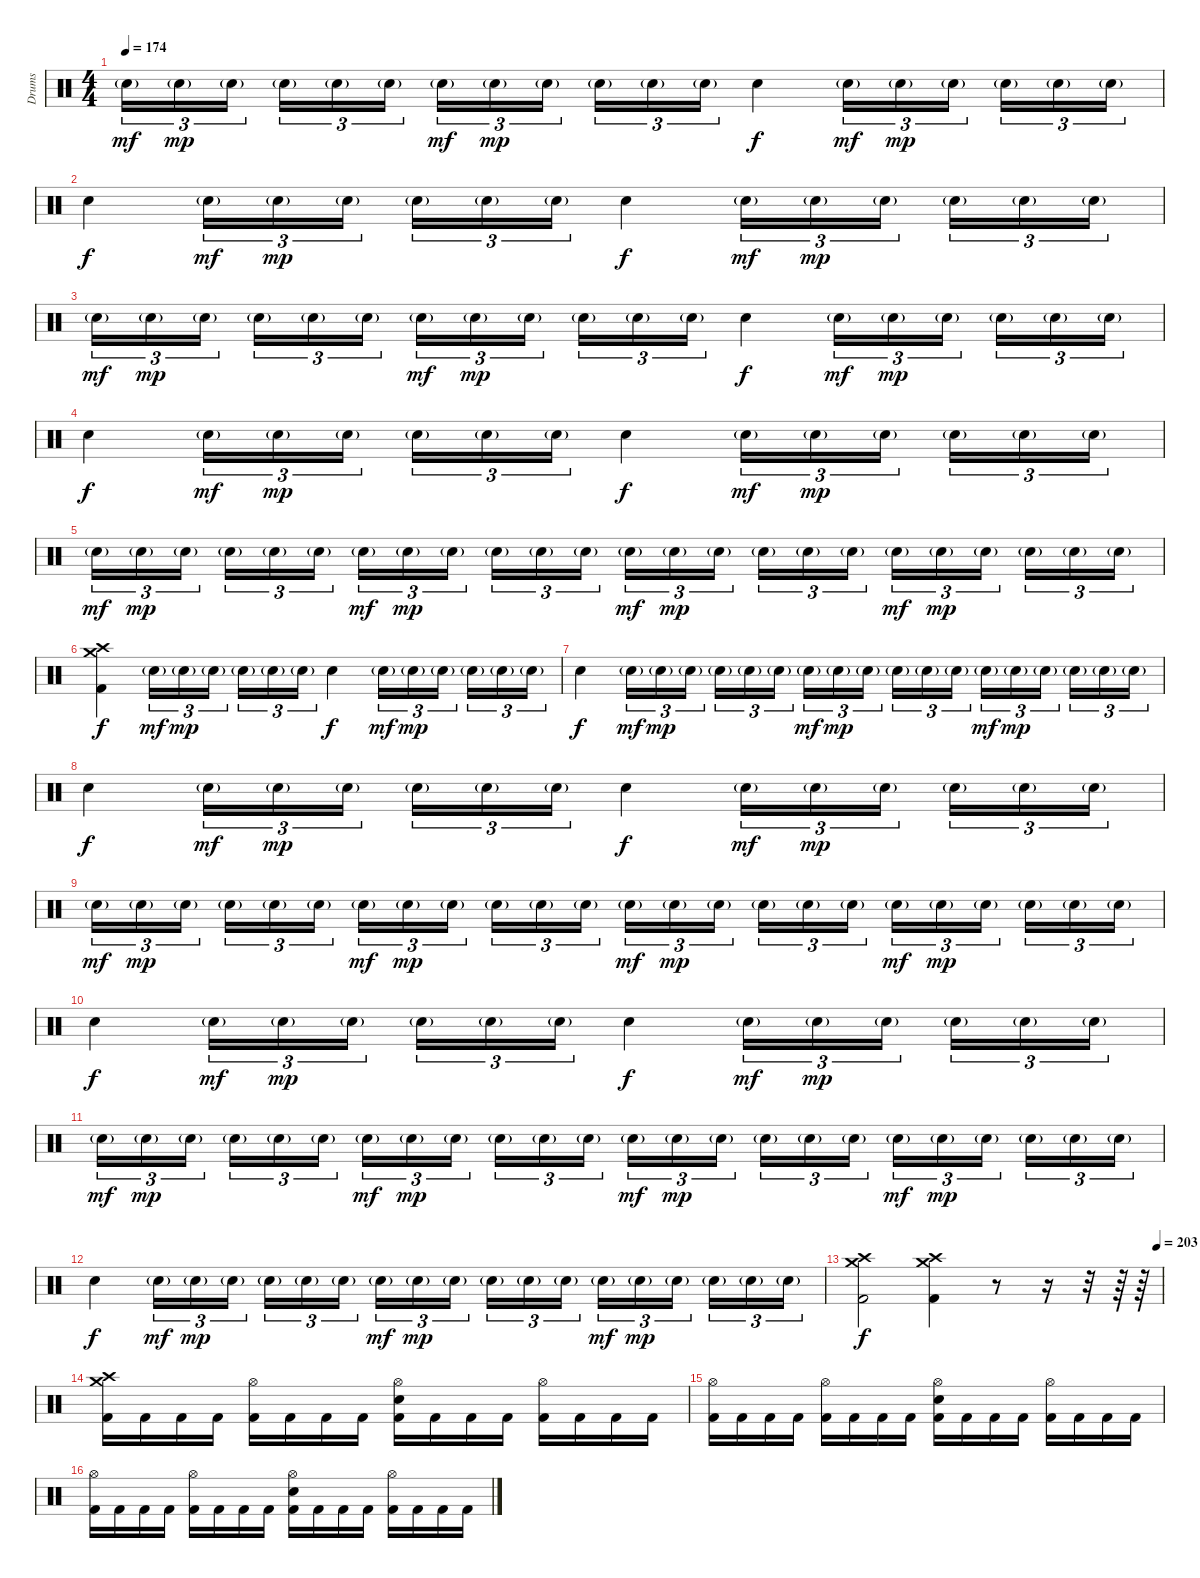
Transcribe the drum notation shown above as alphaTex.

\track ("Drums" "Drums") {instrument percussion}
\staff {score}
\articulation defaults
\ts (4 4)
\tempo 174
\clef neutral
\ks c "Electric Snare (hit)"{g}.16{tu (3 2) dy mf} "Electric Snare (hit)"{g}.16{tu (3 2) dy mp} "Electric Snare (hit)"{g}.16{tu (3 2)} "Electric Snare (hit)"{g}.16{tu (3 2)} "Electric Snare (hit)"{g}.16{tu (3 2)} "Electric Snare (hit)"{g}.16{tu (3 2)} "Electric Snare (hit)"{g}.16{tu (3 2) dy mf} "Electric Snare (hit)"{g}.16{tu (3 2) dy mp} "Electric Snare (hit)"{g}.16{tu (3 2)} "Electric Snare (hit)"{g}.16{tu (3 2)} "Electric Snare (hit)"{g}.16{tu (3 2)} "Electric Snare (hit)"{g}.16{tu (3 2)} "Electric Snare (hit)".4{dy f} "Electric Snare (hit)"{g}.16{tu (3 2) dy mf} "Electric Snare (hit)"{g}.16{tu (3 2) dy mp} "Electric Snare (hit)"{g}.16{tu (3 2)} "Electric Snare (hit)"{g}.16{tu (3 2)} "Electric Snare (hit)"{g}.16{tu (3 2)} "Electric Snare (hit)"{g}.16{tu (3 2)}
|
"Electric Snare (hit)".4{dy f} "Electric Snare (hit)"{g}.16{tu (3 2) dy mf} "Electric Snare (hit)"{g}.16{tu (3 2) dy mp} "Electric Snare (hit)"{g}.16{tu (3 2)} "Electric Snare (hit)"{g}.16{tu (3 2)} "Electric Snare (hit)"{g}.16{tu (3 2)} "Electric Snare (hit)"{g}.16{tu (3 2)} "Electric Snare (hit)".4{dy f} "Electric Snare (hit)"{g}.16{tu (3 2) dy mf} "Electric Snare (hit)"{g}.16{tu (3 2) dy mp} "Electric Snare (hit)"{g}.16{tu (3 2)} "Electric Snare (hit)"{g}.16{tu (3 2)} "Electric Snare (hit)"{g}.16{tu (3 2)} "Electric Snare (hit)"{g}.16{tu (3 2)} |
"Electric Snare (hit)"{g}.16{tu (3 2) dy mf} "Electric Snare (hit)"{g}.16{tu (3 2) dy mp} "Electric Snare (hit)"{g}.16{tu (3 2)} "Electric Snare (hit)"{g}.16{tu (3 2)} "Electric Snare (hit)"{g}.16{tu (3 2)} "Electric Snare (hit)"{g}.16{tu (3 2)} "Electric Snare (hit)"{g}.16{tu (3 2) dy mf} "Electric Snare (hit)"{g}.16{tu (3 2) dy mp} "Electric Snare (hit)"{g}.16{tu (3 2)} "Electric Snare (hit)"{g}.16{tu (3 2)} "Electric Snare (hit)"{g}.16{tu (3 2)} "Electric Snare (hit)"{g}.16{tu (3 2)} "Electric Snare (hit)".4{dy f} "Electric Snare (hit)"{g}.16{tu (3 2) dy mf} "Electric Snare (hit)"{g}.16{tu (3 2) dy mp} "Electric Snare (hit)"{g}.16{tu (3 2)} "Electric Snare (hit)"{g}.16{tu (3 2)} "Electric Snare (hit)"{g}.16{tu (3 2)} "Electric Snare (hit)"{g}.16{tu (3 2)} |
"Electric Snare (hit)".4{dy f} "Electric Snare (hit)"{g}.16{tu (3 2) dy mf} "Electric Snare (hit)"{g}.16{tu (3 2) dy mp} "Electric Snare (hit)"{g}.16{tu (3 2)} "Electric Snare (hit)"{g}.16{tu (3 2)} "Electric Snare (hit)"{g}.16{tu (3 2)} "Electric Snare (hit)"{g}.16{tu (3 2)} "Electric Snare (hit)".4{dy f} "Electric Snare (hit)"{g}.16{tu (3 2) dy mf} "Electric Snare (hit)"{g}.16{tu (3 2) dy mp} "Electric Snare (hit)"{g}.16{tu (3 2)} "Electric Snare (hit)"{g}.16{tu (3 2)} "Electric Snare (hit)"{g}.16{tu (3 2)} "Electric Snare (hit)"{g}.16{tu (3 2)} |
"Electric Snare (hit)"{g}.16{tu (3 2) dy mf} "Electric Snare (hit)"{g}.16{tu (3 2) dy mp} "Electric Snare (hit)"{g}.16{tu (3 2)} "Electric Snare (hit)"{g}.16{tu (3 2)} "Electric Snare (hit)"{g}.16{tu (3 2)} "Electric Snare (hit)"{g}.16{tu (3 2)} "Electric Snare (hit)"{g}.16{tu (3 2) dy mf} "Electric Snare (hit)"{g}.16{tu (3 2) dy mp} "Electric Snare (hit)"{g}.16{tu (3 2)} "Electric Snare (hit)"{g}.16{tu (3 2)} "Electric Snare (hit)"{g}.16{tu (3 2)} "Electric Snare (hit)"{g}.16{tu (3 2)} "Electric Snare (hit)"{g}.16{tu (3 2) dy mf} "Electric Snare (hit)"{g}.16{tu (3 2) dy mp} "Electric Snare (hit)"{g}.16{tu (3 2)} "Electric Snare (hit)"{g}.16{tu (3 2)} "Electric Snare (hit)"{g}.16{tu (3 2)} "Electric Snare (hit)"{g}.16{tu (3 2)} "Electric Snare (hit)"{g}.16{tu (3 2) dy mf} "Electric Snare (hit)"{g}.16{tu (3 2) dy mp} "Electric Snare (hit)"{g}.16{tu (3 2)} "Electric Snare (hit)"{g}.16{tu (3 2)} "Electric Snare (hit)"{g}.16{tu (3 2)} "Electric Snare (hit)"{g}.16{tu (3 2)} |
("Crash medium (hit)" "Crash high (hit)" "Kick (hit) 2").4{dy f} "Electric Snare (hit)"{g}.16{tu (3 2) dy mf} "Electric Snare (hit)"{g}.16{tu (3 2) dy mp} "Electric Snare (hit)"{g}.16{tu (3 2)} "Electric Snare (hit)"{g}.16{tu (3 2)} "Electric Snare (hit)"{g}.16{tu (3 2)} "Electric Snare (hit)"{g}.16{tu (3 2)} "Electric Snare (hit)".4{dy f} "Electric Snare (hit)"{g}.16{tu (3 2) dy mf} "Electric Snare (hit)"{g}.16{tu (3 2) dy mp} "Electric Snare (hit)"{g}.16{tu (3 2)} "Electric Snare (hit)"{g}.16{tu (3 2)} "Electric Snare (hit)"{g}.16{tu (3 2)} "Electric Snare (hit)"{g}.16{tu (3 2)} |
"Electric Snare (hit)".4{dy f} "Electric Snare (hit)"{g}.16{tu (3 2) dy mf} "Electric Snare (hit)"{g}.16{tu (3 2) dy mp} "Electric Snare (hit)"{g}.16{tu (3 2)} "Electric Snare (hit)"{g}.16{tu (3 2)} "Electric Snare (hit)"{g}.16{tu (3 2)} "Electric Snare (hit)"{g}.16{tu (3 2)} "Electric Snare (hit)"{g}.16{tu (3 2) dy mf} "Electric Snare (hit)"{g}.16{tu (3 2) dy mp} "Electric Snare (hit)"{g}.16{tu (3 2)} "Electric Snare (hit)"{g}.16{tu (3 2)} "Electric Snare (hit)"{g}.16{tu (3 2)} "Electric Snare (hit)"{g}.16{tu (3 2)} "Electric Snare (hit)"{g}.16{tu (3 2) dy mf} "Electric Snare (hit)"{g}.16{tu (3 2) dy mp} "Electric Snare (hit)"{g}.16{tu (3 2)} "Electric Snare (hit)"{g}.16{tu (3 2)} "Electric Snare (hit)"{g}.16{tu (3 2)} "Electric Snare (hit)"{g}.16{tu (3 2)} |
"Electric Snare (hit)".4{dy f} "Electric Snare (hit)"{g}.16{tu (3 2) dy mf} "Electric Snare (hit)"{g}.16{tu (3 2) dy mp} "Electric Snare (hit)"{g}.16{tu (3 2)} "Electric Snare (hit)"{g}.16{tu (3 2)} "Electric Snare (hit)"{g}.16{tu (3 2)} "Electric Snare (hit)"{g}.16{tu (3 2)} "Electric Snare (hit)".4{dy f} "Electric Snare (hit)"{g}.16{tu (3 2) dy mf} "Electric Snare (hit)"{g}.16{tu (3 2) dy mp} "Electric Snare (hit)"{g}.16{tu (3 2)} "Electric Snare (hit)"{g}.16{tu (3 2)} "Electric Snare (hit)"{g}.16{tu (3 2)} "Electric Snare (hit)"{g}.16{tu (3 2)} |
"Electric Snare (hit)"{g}.16{tu (3 2) dy mf} "Electric Snare (hit)"{g}.16{tu (3 2) dy mp} "Electric Snare (hit)"{g}.16{tu (3 2)} "Electric Snare (hit)"{g}.16{tu (3 2)} "Electric Snare (hit)"{g}.16{tu (3 2)} "Electric Snare (hit)"{g}.16{tu (3 2)} "Electric Snare (hit)"{g}.16{tu (3 2) dy mf} "Electric Snare (hit)"{g}.16{tu (3 2) dy mp} "Electric Snare (hit)"{g}.16{tu (3 2)} "Electric Snare (hit)"{g}.16{tu (3 2)} "Electric Snare (hit)"{g}.16{tu (3 2)} "Electric Snare (hit)"{g}.16{tu (3 2)} "Electric Snare (hit)"{g}.16{tu (3 2) dy mf} "Electric Snare (hit)"{g}.16{tu (3 2) dy mp} "Electric Snare (hit)"{g}.16{tu (3 2)} "Electric Snare (hit)"{g}.16{tu (3 2)} "Electric Snare (hit)"{g}.16{tu (3 2)} "Electric Snare (hit)"{g}.16{tu (3 2)} "Electric Snare (hit)"{g}.16{tu (3 2) dy mf} "Electric Snare (hit)"{g}.16{tu (3 2) dy mp} "Electric Snare (hit)"{g}.16{tu (3 2)} "Electric Snare (hit)"{g}.16{tu (3 2)} "Electric Snare (hit)"{g}.16{tu (3 2)} "Electric Snare (hit)"{g}.16{tu (3 2)} |
"Electric Snare (hit)".4{dy f} "Electric Snare (hit)"{g}.16{tu (3 2) dy mf} "Electric Snare (hit)"{g}.16{tu (3 2) dy mp} "Electric Snare (hit)"{g}.16{tu (3 2)} "Electric Snare (hit)"{g}.16{tu (3 2)} "Electric Snare (hit)"{g}.16{tu (3 2)} "Electric Snare (hit)"{g}.16{tu (3 2)} "Electric Snare (hit)".4{dy f} "Electric Snare (hit)"{g}.16{tu (3 2) dy mf} "Electric Snare (hit)"{g}.16{tu (3 2) dy mp} "Electric Snare (hit)"{g}.16{tu (3 2)} "Electric Snare (hit)"{g}.16{tu (3 2)} "Electric Snare (hit)"{g}.16{tu (3 2)} "Electric Snare (hit)"{g}.16{tu (3 2)} |
"Electric Snare (hit)"{g}.16{tu (3 2) dy mf} "Electric Snare (hit)"{g}.16{tu (3 2) dy mp} "Electric Snare (hit)"{g}.16{tu (3 2)} "Electric Snare (hit)"{g}.16{tu (3 2)} "Electric Snare (hit)"{g}.16{tu (3 2)} "Electric Snare (hit)"{g}.16{tu (3 2)} "Electric Snare (hit)"{g}.16{tu (3 2) dy mf} "Electric Snare (hit)"{g}.16{tu (3 2) dy mp} "Electric Snare (hit)"{g}.16{tu (3 2)} "Electric Snare (hit)"{g}.16{tu (3 2)} "Electric Snare (hit)"{g}.16{tu (3 2)} "Electric Snare (hit)"{g}.16{tu (3 2)} "Electric Snare (hit)"{g}.16{tu (3 2) dy mf} "Electric Snare (hit)"{g}.16{tu (3 2) dy mp} "Electric Snare (hit)"{g}.16{tu (3 2)} "Electric Snare (hit)"{g}.16{tu (3 2)} "Electric Snare (hit)"{g}.16{tu (3 2)} "Electric Snare (hit)"{g}.16{tu (3 2)} "Electric Snare (hit)"{g}.16{tu (3 2) dy mf} "Electric Snare (hit)"{g}.16{tu (3 2) dy mp} "Electric Snare (hit)"{g}.16{tu (3 2)} "Electric Snare (hit)"{g}.16{tu (3 2)} "Electric Snare (hit)"{g}.16{tu (3 2)} "Electric Snare (hit)"{g}.16{tu (3 2)} |
"Electric Snare (hit)".4{dy f} "Electric Snare (hit)"{g}.16{tu (3 2) dy mf} "Electric Snare (hit)"{g}.16{tu (3 2) dy mp} "Electric Snare (hit)"{g}.16{tu (3 2)} "Electric Snare (hit)"{g}.16{tu (3 2)} "Electric Snare (hit)"{g}.16{tu (3 2)} "Electric Snare (hit)"{g}.16{tu (3 2)} "Electric Snare (hit)"{g}.16{tu (3 2) dy mf} "Electric Snare (hit)"{g}.16{tu (3 2) dy mp} "Electric Snare (hit)"{g}.16{tu (3 2)} "Electric Snare (hit)"{g}.16{tu (3 2)} "Electric Snare (hit)"{g}.16{tu (3 2)} "Electric Snare (hit)"{g}.16{tu (3 2)} "Electric Snare (hit)"{g}.16{tu (3 2) dy mf} "Electric Snare (hit)"{g}.16{tu (3 2) dy mp} "Electric Snare (hit)"{g}.16{tu (3 2)} "Electric Snare (hit)"{g}.16{tu (3 2)} "Electric Snare (hit)"{g}.16{tu (3 2)} "Electric Snare (hit)"{g}.16{tu (3 2)} |
\tempo (203 0.984375)
("Crash medium (hit)" "Crash high (hit)" "Kick (hit) 2").2{dy f} ("Crash medium (hit)" "Crash high (hit)" "Kick (hit) 2").4 r.8 r.16 r.32 r.64 r.64 |
("Crash medium (hit)" "Crash high (hit)" "Kick (hit) 2").16 "Kick (hit) 2".16 "Kick (hit) 2".16 "Kick (hit) 2".16 ("Hi-Hat (open)" "Kick (hit) 2").16 "Kick (hit) 2".16 "Kick (hit) 2".16 "Kick (hit) 2".16 ("Hi-Hat (open)" "Electric Snare (hit)" "Kick (hit) 2").16 "Kick (hit) 2".16 "Kick (hit) 2".16 "Kick (hit) 2".16 ("Hi-Hat (open)" "Kick (hit) 2").16 "Kick (hit) 2".16 "Kick (hit) 2".16 "Kick (hit) 2".16 |
("Hi-Hat (open)" "Kick (hit) 2").16 "Kick (hit) 2".16 "Kick (hit) 2".16 "Kick (hit) 2".16 ("Hi-Hat (open)" "Kick (hit) 2").16 "Kick (hit) 2".16 "Kick (hit) 2".16 "Kick (hit) 2".16 ("Hi-Hat (open)" "Electric Snare (hit)" "Kick (hit) 2").16 "Kick (hit) 2".16 "Kick (hit) 2".16 "Kick (hit) 2".16 ("Hi-Hat (open)" "Kick (hit) 2").16 "Kick (hit) 2".16 "Kick (hit) 2".16 "Kick (hit) 2".16 |
("Hi-Hat (open)" "Kick (hit) 2").16 "Kick (hit) 2".16 "Kick (hit) 2".16 "Kick (hit) 2".16 ("Hi-Hat (open)" "Kick (hit) 2").16 "Kick (hit) 2".16 "Kick (hit) 2".16 "Kick (hit) 2".16 ("Hi-Hat (open)" "Electric Snare (hit)" "Kick (hit) 2").16 "Kick (hit) 2".16 "Kick (hit) 2".16 "Kick (hit) 2".16 ("Hi-Hat (open)" "Kick (hit) 2").16 "Kick (hit) 2".16 "Kick (hit) 2".16 "Kick (hit) 2".16
